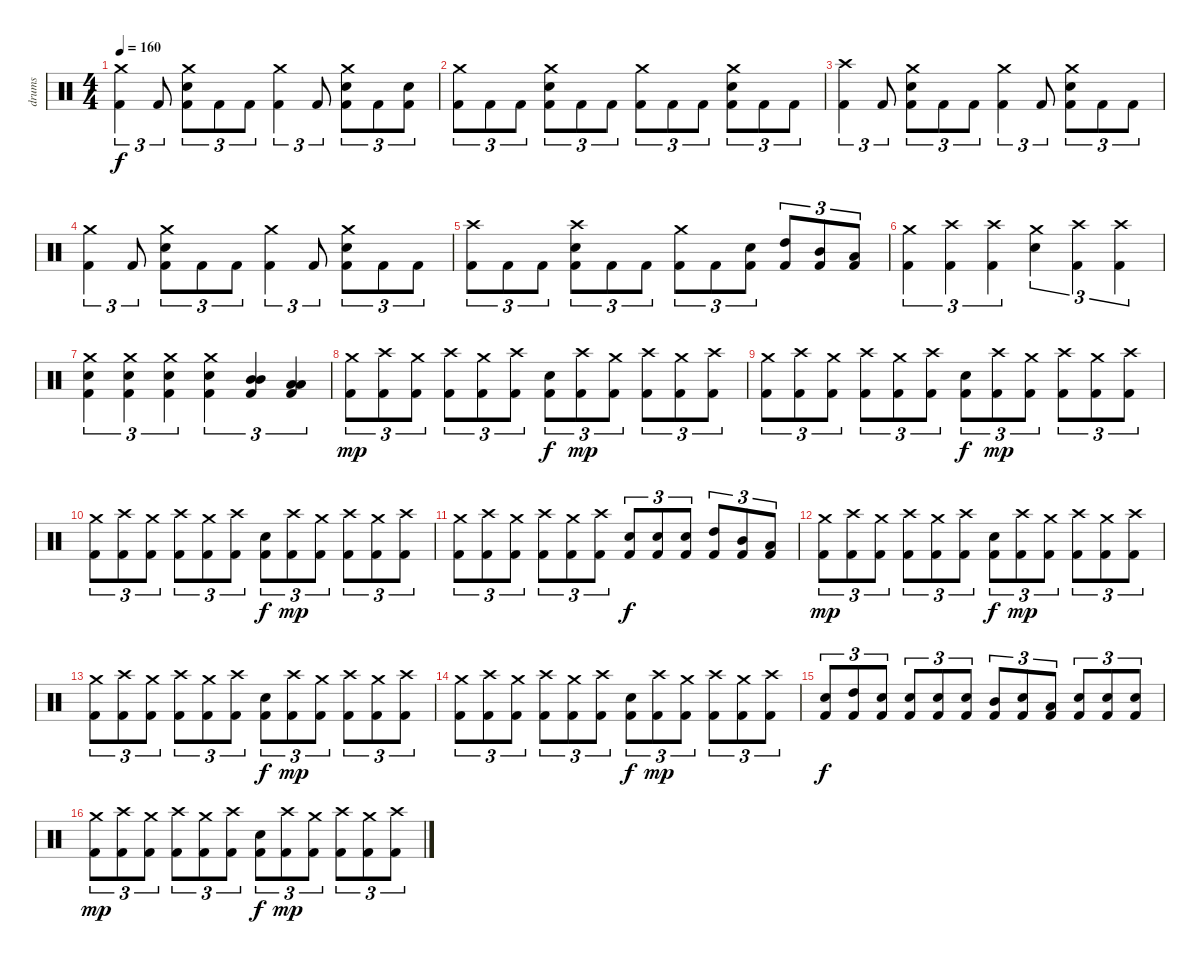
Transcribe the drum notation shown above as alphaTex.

\track ("drums" "drums") {instrument percussion}
\staff {score}
\articulation defaults
\ts (4 4)
\tempo 160
\clef neutral
\ks c
("Crash medium (hit)" "Kick (hit) 2").4{tu (3 2) dy f} "Kick (hit) 2".8{tu (3 2)} ("Crash medium (hit)" "Electric Snare (hit)" "Kick (hit) 2").8{tu (3 2)} "Kick (hit) 2".8{tu (3 2)} "Kick (hit) 2".8{tu (3 2)} ("Crash medium (hit)" "Kick (hit) 2").4{tu (3 2)} "Kick (hit) 2".8{tu (3 2)} ("Crash medium (hit)" "Electric Snare (hit)" "Kick (hit) 2").8{tu (3 2)} "Kick (hit) 2".8{tu (3 2)} ("Electric Snare (hit)" "Kick (hit) 2").8{tu (3 2)} |
("Crash medium (hit)" "Kick (hit) 2").8{tu (3 2)} "Kick (hit) 2".8{tu (3 2)} "Kick (hit) 2".8{tu (3 2)} ("Crash medium (hit)" "Electric Snare (hit)" "Kick (hit) 2").8{tu (3 2)} "Kick (hit) 2".8{tu (3 2)} "Kick (hit) 2".8{tu (3 2)} ("Crash medium (hit)" "Kick (hit) 2").8{tu (3 2)} "Kick (hit) 2".8{tu (3 2)} "Kick (hit) 2".8{tu (3 2)} ("Crash medium (hit)" "Electric Snare (hit)" "Kick (hit) 2").8{tu (3 2)} "Kick (hit) 2".8{tu (3 2)} "Kick (hit) 2".8{tu (3 2)} |
("Crash high (hit)" "Kick (hit) 2").4{tu (3 2)} "Kick (hit) 2".8{tu (3 2)} ("Crash medium (hit)" "Electric Snare (hit)" "Kick (hit) 2").8{tu (3 2)} "Kick (hit) 2".8{tu (3 2)} "Kick (hit) 2".8{tu (3 2)} ("Crash medium (hit)" "Kick (hit) 2").4{tu (3 2)} "Kick (hit) 2".8{tu (3 2)} ("Crash medium (hit)" "Electric Snare (hit)" "Kick (hit) 2").8{tu (3 2)} "Kick (hit) 2".8{tu (3 2)} "Kick (hit) 2".8{tu (3 2)} |
("Crash medium (hit)" "Kick (hit) 2").4{tu (3 2)} "Kick (hit) 2".8{tu (3 2)} ("Crash medium (hit)" "Electric Snare (hit)" "Kick (hit) 2").8{tu (3 2)} "Kick (hit) 2".8{tu (3 2)} "Kick (hit) 2".8{tu (3 2)} ("Crash medium (hit)" "Kick (hit) 2").4{tu (3 2)} "Kick (hit) 2".8{tu (3 2)} ("Crash medium (hit)" "Electric Snare (hit)" "Kick (hit) 2").8{tu (3 2)} "Kick (hit) 2".8{tu (3 2)} "Kick (hit) 2".8{tu (3 2)} |
("Crash high (hit)" "Kick (hit) 2").8{tu (3 2)} "Kick (hit) 2".8{tu (3 2)} "Kick (hit) 2".8{tu (3 2)} ("Crash high (hit)" "Electric Snare (hit)" "Kick (hit) 2").8{tu (3 2)} "Kick (hit) 2".8{tu (3 2)} "Kick (hit) 2".8{tu (3 2)} ("Crash medium (hit)" "Kick (hit) 2").8{tu (3 2)} "Kick (hit) 2".8{tu (3 2)} ("Electric Snare (hit)" "Kick (hit) 2").8{tu (3 2)} ("High Tom (hit)" "Kick (hit) 2").8{tu (3 2)} ("Mid Tom (hit)" "Kick (hit) 2").8{tu (3 2)} ("Low Tom (hit)" "Kick (hit) 2").8{tu (3 2)} |
("Crash medium (hit)" "Kick (hit) 2").4{tu (3 2)} ("Crash high (hit)" "Kick (hit) 2").4{tu (3 2)} ("Crash high (hit)" "Kick (hit) 2").4{tu (3 2)} ("Crash medium (hit)" "Electric Snare (hit)").4{tu (3 2)} ("Crash high (hit)" "Kick (hit) 2").4{tu (3 2)} ("Crash high (hit)" "Kick (hit) 2").4{tu (3 2)} |
("Crash medium (hit)" "Electric Snare (hit)" "Kick (hit) 2").4{tu (3 2)} ("Crash medium (hit)" "Electric Snare (hit)" "Kick (hit) 2").4{tu (3 2)} ("Crash medium (hit)" "Electric Snare (hit)" "Kick (hit) 2").4{tu (3 2)} ("Crash medium (hit)" "Electric Snare (hit)" "Kick (hit) 2").4{tu (3 2)} ("Mid Tom (hit)" "Mid Tom (hit)" "Kick (hit) 2").4{tu (3 2)} ("Low Tom (hit)" "Low Tom (hit)" "Kick (hit) 2").4{tu (3 2)} |
("Crash medium (hit)" "Kick (hit) 2").8{tu (3 2) dy mp} ("Crash high (hit)" "Kick (hit) 2").8{tu (3 2)} ("Crash medium (hit)" "Kick (hit) 2").8{tu (3 2)} ("Crash high (hit)" "Kick (hit) 2").8{tu (3 2)} ("Crash medium (hit)" "Kick (hit) 2").8{tu (3 2)} ("Crash high (hit)" "Kick (hit) 2").8{tu (3 2)} ("Electric Snare (hit)" "Kick (hit) 2").8{tu (3 2) dy f} ("Crash high (hit)" "Kick (hit) 2").8{tu (3 2) dy mp} ("Crash medium (hit)" "Kick (hit) 2").8{tu (3 2)} ("Crash high (hit)" "Kick (hit) 2").8{tu (3 2)} ("Crash medium (hit)" "Kick (hit) 2").8{tu (3 2)} ("Crash high (hit)" "Kick (hit) 2").8{tu (3 2)} |
("Crash medium (hit)" "Kick (hit) 2").8{tu (3 2)} ("Crash high (hit)" "Kick (hit) 2").8{tu (3 2)} ("Crash medium (hit)" "Kick (hit) 2").8{tu (3 2)} ("Crash high (hit)" "Kick (hit) 2").8{tu (3 2)} ("Crash medium (hit)" "Kick (hit) 2").8{tu (3 2)} ("Crash high (hit)" "Kick (hit) 2").8{tu (3 2)} ("Electric Snare (hit)" "Kick (hit) 2").8{tu (3 2) dy f} ("Crash high (hit)" "Kick (hit) 2").8{tu (3 2) dy mp} ("Crash medium (hit)" "Kick (hit) 2").8{tu (3 2)} ("Crash high (hit)" "Kick (hit) 2").8{tu (3 2)} ("Crash medium (hit)" "Kick (hit) 2").8{tu (3 2)} ("Crash high (hit)" "Kick (hit) 2").8{tu (3 2)} |
("Crash medium (hit)" "Kick (hit) 2").8{tu (3 2)} ("Crash high (hit)" "Kick (hit) 2").8{tu (3 2)} ("Crash medium (hit)" "Kick (hit) 2").8{tu (3 2)} ("Crash high (hit)" "Kick (hit) 2").8{tu (3 2)} ("Crash medium (hit)" "Kick (hit) 2").8{tu (3 2)} ("Crash high (hit)" "Kick (hit) 2").8{tu (3 2)} ("Electric Snare (hit)" "Kick (hit) 2").8{tu (3 2) dy f} ("Crash high (hit)" "Kick (hit) 2").8{tu (3 2) dy mp} ("Crash medium (hit)" "Kick (hit) 2").8{tu (3 2)} ("Crash high (hit)" "Kick (hit) 2").8{tu (3 2)} ("Crash medium (hit)" "Kick (hit) 2").8{tu (3 2)} ("Crash high (hit)" "Kick (hit) 2").8{tu (3 2)} |
("Crash medium (hit)" "Kick (hit) 2").8{tu (3 2)} ("Crash high (hit)" "Kick (hit) 2").8{tu (3 2)} ("Crash medium (hit)" "Kick (hit) 2").8{tu (3 2)} ("Crash high (hit)" "Kick (hit) 2").8{tu (3 2)} ("Crash medium (hit)" "Kick (hit) 2").8{tu (3 2)} ("Crash high (hit)" "Kick (hit) 2").8{tu (3 2)} ("Electric Snare (hit)" "Kick (hit) 2").8{tu (3 2) dy f} ("Electric Snare (hit)" "Kick (hit) 2").8{tu (3 2)} ("Electric Snare (hit)" "Kick (hit) 2").8{tu (3 2)} ("High Tom (hit)" "Kick (hit) 2").8{tu (3 2)} ("Mid Tom (hit)" "Kick (hit) 2").8{tu (3 2)} ("Low Tom (hit)" "Kick (hit) 2").8{tu (3 2)} |
("Crash medium (hit)" "Kick (hit) 2").8{tu (3 2) dy mp} ("Crash high (hit)" "Kick (hit) 2").8{tu (3 2)} ("Crash medium (hit)" "Kick (hit) 2").8{tu (3 2)} ("Crash high (hit)" "Kick (hit) 2").8{tu (3 2)} ("Crash medium (hit)" "Kick (hit) 2").8{tu (3 2)} ("Crash high (hit)" "Kick (hit) 2").8{tu (3 2)} ("Electric Snare (hit)" "Kick (hit) 2").8{tu (3 2) dy f} ("Crash high (hit)" "Kick (hit) 2").8{tu (3 2) dy mp} ("Crash medium (hit)" "Kick (hit) 2").8{tu (3 2)} ("Crash high (hit)" "Kick (hit) 2").8{tu (3 2)} ("Crash medium (hit)" "Kick (hit) 2").8{tu (3 2)} ("Crash high (hit)" "Kick (hit) 2").8{tu (3 2)} |
("Crash medium (hit)" "Kick (hit) 2").8{tu (3 2)} ("Crash high (hit)" "Kick (hit) 2").8{tu (3 2)} ("Crash medium (hit)" "Kick (hit) 2").8{tu (3 2)} ("Crash high (hit)" "Kick (hit) 2").8{tu (3 2)} ("Crash medium (hit)" "Kick (hit) 2").8{tu (3 2)} ("Crash high (hit)" "Kick (hit) 2").8{tu (3 2)} ("Electric Snare (hit)" "Kick (hit) 2").8{tu (3 2) dy f} ("Crash high (hit)" "Kick (hit) 2").8{tu (3 2) dy mp} ("Crash medium (hit)" "Kick (hit) 2").8{tu (3 2)} ("Crash high (hit)" "Kick (hit) 2").8{tu (3 2)} ("Crash medium (hit)" "Kick (hit) 2").8{tu (3 2)} ("Crash high (hit)" "Kick (hit) 2").8{tu (3 2)} |
("Crash medium (hit)" "Kick (hit) 2").8{tu (3 2)} ("Crash high (hit)" "Kick (hit) 2").8{tu (3 2)} ("Crash medium (hit)" "Kick (hit) 2").8{tu (3 2)} ("Crash high (hit)" "Kick (hit) 2").8{tu (3 2)} ("Crash medium (hit)" "Kick (hit) 2").8{tu (3 2)} ("Crash high (hit)" "Kick (hit) 2").8{tu (3 2)} ("Electric Snare (hit)" "Kick (hit) 2").8{tu (3 2) dy f} ("Crash high (hit)" "Kick (hit) 2").8{tu (3 2) dy mp} ("Crash medium (hit)" "Kick (hit) 2").8{tu (3 2)} ("Crash high (hit)" "Kick (hit) 2").8{tu (3 2)} ("Crash medium (hit)" "Kick (hit) 2").8{tu (3 2)} ("Crash high (hit)" "Kick (hit) 2").8{tu (3 2)} |
("Electric Snare (hit)" "Kick (hit) 2").8{tu (3 2) dy f} ("High Tom (hit)" "Kick (hit) 2").8{tu (3 2)} ("Electric Snare (hit)" "Kick (hit) 2").8{tu (3 2)} ("Electric Snare (hit)" "Kick (hit) 2").8{tu (3 2)} ("Electric Snare (hit)" "Kick (hit) 2").8{tu (3 2)} ("Electric Snare (hit)" "Kick (hit) 2").8{tu (3 2)} ("Mid Tom (hit)" "Kick (hit) 2").8{tu (3 2)} ("Electric Snare (hit)" "Kick (hit) 2").8{tu (3 2)} ("Low Tom (hit)" "Kick (hit) 2").8{tu (3 2)} ("Electric Snare (hit)" "Kick (hit) 2").8{tu (3 2)} ("Electric Snare (hit)" "Kick (hit) 2").8{tu (3 2)} ("Electric Snare (hit)" "Kick (hit) 2").8{tu (3 2)} |
("Crash medium (hit)" "Kick (hit) 2").8{tu (3 2) dy mp} ("Crash high (hit)" "Kick (hit) 2").8{tu (3 2)} ("Crash medium (hit)" "Kick (hit) 2").8{tu (3 2)} ("Crash high (hit)" "Kick (hit) 2").8{tu (3 2)} ("Crash medium (hit)" "Kick (hit) 2").8{tu (3 2)} ("Crash high (hit)" "Kick (hit) 2").8{tu (3 2)} ("Electric Snare (hit)" "Kick (hit) 2").8{tu (3 2) dy f} ("Crash high (hit)" "Kick (hit) 2").8{tu (3 2) dy mp} ("Crash medium (hit)" "Kick (hit) 2").8{tu (3 2)} ("Crash high (hit)" "Kick (hit) 2").8{tu (3 2)} ("Crash medium (hit)" "Kick (hit) 2").8{tu (3 2)} ("Crash high (hit)" "Kick (hit) 2").8{tu (3 2)}
